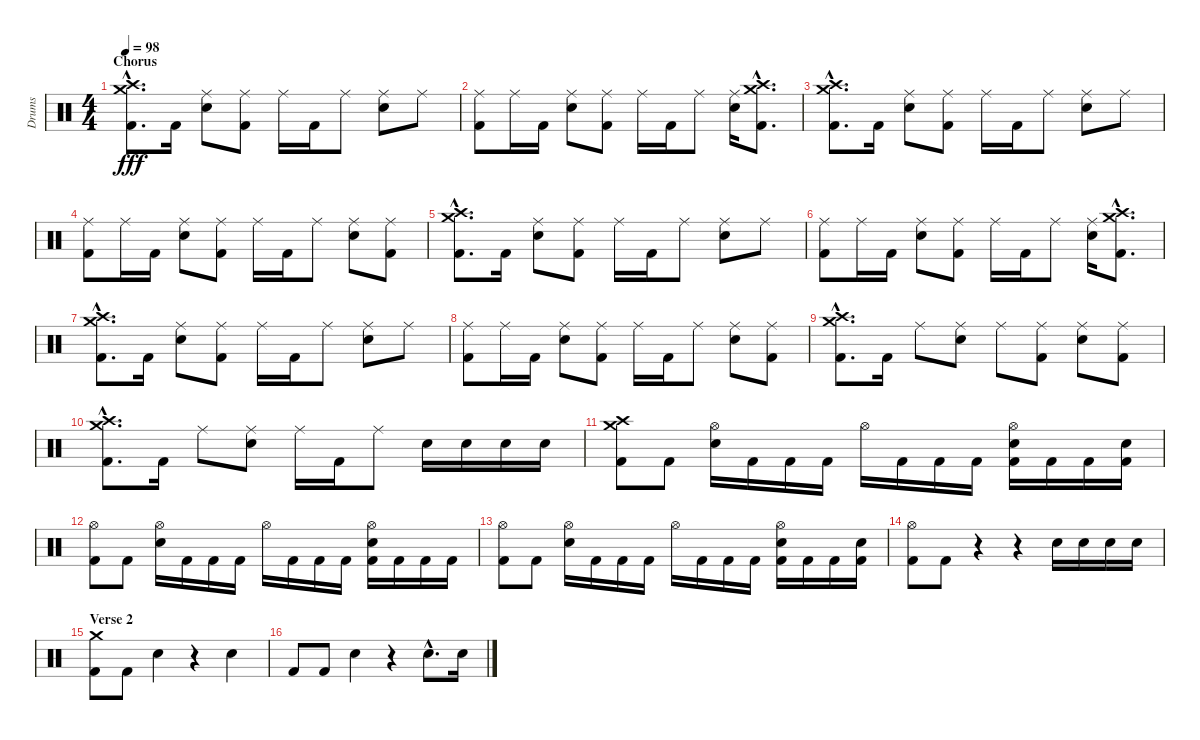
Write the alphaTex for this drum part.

\track ("Drums" "Drums") {instrument percussion}
\staff {score}
\articulation defaults
\ts (4 4)
\section ("" "Chorus")
\tempo 98
\clef neutral
\ks c
("Crash high (hit)"{hac} "Crash medium (hit)"{hac} "Kick (hit) 2"{hac}).8{d dy fff} "Kick (hit) 2".16 ("Ride (middle)" "Electric Snare (hit)").8 ("Ride (middle)" "Kick (hit) 2").8 "Ride (middle)".16 "Kick (hit) 2".16 "Ride (middle)".8 ("Ride (middle)" "Electric Snare (hit)").8 "Ride (middle)".8 |
("Ride (middle)" "Kick (hit) 2").8 "Ride (middle)".16 "Kick (hit) 2".16 ("Ride (middle)" "Electric Snare (hit)").8 ("Ride (middle)" "Kick (hit) 2").8 "Ride (middle)".16 "Kick (hit) 2".16 "Ride (middle)".8 ("Ride (middle)" "Electric Snare (hit)").16 ("Crash high (hit)"{hac} "Crash medium (hit)"{hac} "Kick (hit) 2"{hac}).8{d} |
("Crash high (hit)"{hac} "Crash medium (hit)"{hac} "Kick (hit) 2"{hac}).8{d} "Kick (hit) 2".16 ("Ride (middle)" "Electric Snare (hit)").8 ("Ride (middle)" "Kick (hit) 2").8 "Ride (middle)".16 "Kick (hit) 2".16 "Ride (middle)".8 ("Ride (middle)" "Electric Snare (hit)").8 "Ride (middle)".8 |
("Ride (middle)" "Kick (hit) 2").8 "Ride (middle)".16 "Kick (hit) 2".16 ("Ride (middle)" "Electric Snare (hit)").8 ("Ride (middle)" "Kick (hit) 2").8 "Ride (middle)".16 "Kick (hit) 2".16 "Ride (middle)".8 ("Ride (middle)" "Electric Snare (hit)").8 ("Ride (middle)" "Kick (hit) 2").8 |
("Crash high (hit)"{hac} "Crash medium (hit)"{hac} "Kick (hit) 2"{hac}).8{d} "Kick (hit) 2".16 ("Ride (middle)" "Electric Snare (hit)").8 ("Ride (middle)" "Kick (hit) 2").8 "Ride (middle)".16 "Kick (hit) 2".16 "Ride (middle)".8 ("Ride (middle)" "Electric Snare (hit)").8 "Ride (middle)".8 |
("Ride (middle)" "Kick (hit) 2").8 "Ride (middle)".16 "Kick (hit) 2".16 ("Ride (middle)" "Electric Snare (hit)").8 ("Ride (middle)" "Kick (hit) 2").8 "Ride (middle)".16 "Kick (hit) 2".16 "Ride (middle)".8 ("Ride (middle)" "Electric Snare (hit)").16 ("Crash high (hit)"{hac} "Crash medium (hit)"{hac} "Kick (hit) 2"{hac}).8{d} |
("Crash high (hit)"{hac} "Crash medium (hit)"{hac} "Kick (hit) 2"{hac}).8{d} "Kick (hit) 2".16 ("Ride (middle)" "Electric Snare (hit)").8 ("Ride (middle)" "Kick (hit) 2").8 "Ride (middle)".16 "Kick (hit) 2".16 "Ride (middle)".8 ("Ride (middle)" "Electric Snare (hit)").8 "Ride (middle)".8 |
("Ride (middle)" "Kick (hit) 2").8 "Ride (middle)".16 "Kick (hit) 2".16 ("Ride (middle)" "Electric Snare (hit)").8 ("Ride (middle)" "Kick (hit) 2").8 "Ride (middle)".16 "Kick (hit) 2".16 "Ride (middle)".8 ("Ride (middle)" "Electric Snare (hit)").8 ("Ride (middle)" "Kick (hit) 2").8 |
("Crash high (hit)"{hac} "Crash medium (hit)"{hac} "Kick (hit) 2"{hac}).8{d} "Kick (hit) 2".16 "Ride (middle)".8 ("Ride (middle)" "Electric Snare (hit)").8 "Ride (middle)".8 ("Ride (middle)" "Kick (hit) 2").8 ("Ride (middle)" "Electric Snare (hit)").8 ("Ride (middle)" "Kick (hit) 2").8 |
("Crash high (hit)"{hac} "Crash medium (hit)"{hac} "Kick (hit) 2"{hac}).8{d} "Kick (hit) 2".16 "Ride (middle)".8 ("Ride (middle)" "Electric Snare (hit)").8 "Ride (middle)".16 "Kick (hit) 2".16 "Ride (middle)".8 "Electric Snare (hit)".16 "Electric Snare (hit)".16 "Electric Snare (hit)".16 "Electric Snare (hit)".16 |
("Crash high (hit)" "Crash medium (hit)" "Kick (hit) 2").8 "Kick (hit) 2".8 ("Hi-Hat (open)" "Electric Snare (hit)").16 "Kick (hit) 2".16 "Kick (hit) 2".16 "Kick (hit) 2".16 "Hi-Hat (open)".16 "Kick (hit) 2".16 "Kick (hit) 2".16 "Kick (hit) 2".16 ("Hi-Hat (open)" "Electric Snare (hit)" "Kick (hit) 2").16 "Kick (hit) 2".16 "Kick (hit) 2".16 ("Electric Snare (hit)" "Kick (hit) 2").16 |
("Hi-Hat (open)" "Kick (hit) 2").8 "Kick (hit) 2".8 ("Hi-Hat (open)" "Electric Snare (hit)").16 "Kick (hit) 2".16 "Kick (hit) 2".16 "Kick (hit) 2".16 "Hi-Hat (open)".16 "Kick (hit) 2".16 "Kick (hit) 2".16 "Kick (hit) 2".16 ("Hi-Hat (open)" "Electric Snare (hit)" "Kick (hit) 2").16 "Kick (hit) 2".16 "Kick (hit) 2".16 "Kick (hit) 2".16 |
("Hi-Hat (open)" "Kick (hit) 2").8 "Kick (hit) 2".8 ("Hi-Hat (open)" "Electric Snare (hit)").16 "Kick (hit) 2".16 "Kick (hit) 2".16 "Kick (hit) 2".16 "Hi-Hat (open)".16 "Kick (hit) 2".16 "Kick (hit) 2".16 "Kick (hit) 2".16 ("Hi-Hat (open)" "Electric Snare (hit)" "Kick (hit) 2").16 "Kick (hit) 2".16 "Kick (hit) 2".16 ("Electric Snare (hit)" "Kick (hit) 2").16 |
("Hi-Hat (open)" "Kick (hit) 2").8 "Kick (hit) 2".8 r.4 r.4 "Electric Snare (hit)".16 "Electric Snare (hit)".16 "Electric Snare (hit)".16 "Electric Snare (hit)".16 |
\section ("" "Verse 2")
("Crash medium (hit)" "Kick (hit) 2").8 "Kick (hit) 2".8 "Electric Snare (hit)".4 r.4 "Electric Snare (hit)".4 |
"Kick (hit) 2".8 "Kick (hit) 2".8 "Electric Snare (hit)".4 r.4 "Electric Snare (hit)"{hac}.8{d} "Electric Snare (hit)".16
